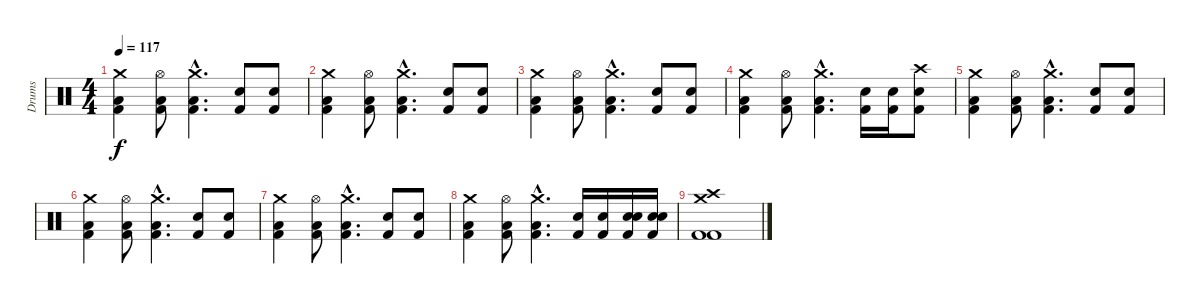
\track ("Drums" "Drums") {instrument percussion}
\staff {score}
\articulation defaults
\ts (4 4)
\tempo 117
\clef neutral
\ks c
("Crash medium (hit)" "Low Tom (hit)" "Kick (hit) 2").4{dy f} ("Hi-Hat (open)" "Low Tom (hit)" "Kick (hit) 2").8 ("Crash medium (hit)"{hac} "Low Floor Tom (hit)"{hac} "Kick (hit) 2"{hac}).4{d} ("Snare (hit) 2" "Kick (hit) 2").8 ("Snare (hit) 2" "Kick (hit) 2").8 |
("Crash medium (hit)" "Low Tom (hit)" "Kick (hit) 2").4 ("Hi-Hat (open)" "Low Tom (hit)" "Kick (hit) 2").8 ("Crash medium (hit)"{hac} "Low Floor Tom (hit)"{hac} "Kick (hit) 2"{hac}).4{d} ("Snare (hit) 2" "Kick (hit) 2").8 ("Snare (hit) 2" "Kick (hit) 2").8 |
("Crash medium (hit)" "Low Tom (hit)" "Kick (hit) 2").4 ("Hi-Hat (open)" "Low Tom (hit)" "Kick (hit) 2").8 ("Crash medium (hit)"{hac} "Low Floor Tom (hit)"{hac} "Kick (hit) 2"{hac}).4{d} ("Snare (hit) 2" "Kick (hit) 2").8 ("Snare (hit) 2" "Kick (hit) 2").8 |
("Crash medium (hit)" "Low Tom (hit)" "Kick (hit) 2").4 ("Hi-Hat (open)" "Low Tom (hit)" "Kick (hit) 2").8 ("Crash medium (hit)"{hac} "Low Floor Tom (hit)"{hac} "Kick (hit) 2"{hac}).4{d} ("Snare (hit) 2" "Kick (hit) 2").16 ("Snare (hit) 2" "Kick (hit) 2").16 ("Crash high (hit)" "Snare (hit) 2" "Kick (hit) 2").8 |
("Crash medium (hit)" "Low Tom (hit)" "Kick (hit) 2").4 ("Hi-Hat (open)" "Low Tom (hit)" "Kick (hit) 2").8 ("Crash medium (hit)"{hac} "Low Floor Tom (hit)"{hac} "Kick (hit) 2"{hac}).4{d} ("Snare (hit) 2" "Kick (hit) 2").8 ("Snare (hit) 2" "Kick (hit) 2").8 |
("Crash medium (hit)" "Low Tom (hit)" "Kick (hit) 2").4 ("Hi-Hat (open)" "Low Tom (hit)" "Kick (hit) 2").8 ("Crash medium (hit)"{hac} "Low Floor Tom (hit)"{hac} "Kick (hit) 2"{hac}).4{d} ("Snare (hit) 2" "Kick (hit) 2").8 ("Snare (hit) 2" "Kick (hit) 2").8 |
("Crash medium (hit)" "Low Tom (hit)" "Kick (hit) 2").4 ("Hi-Hat (open)" "Low Tom (hit)" "Kick (hit) 2").8 ("Crash medium (hit)"{hac} "Low Floor Tom (hit)"{hac} "Kick (hit) 2"{hac}).4{d} ("Snare (hit) 2" "Kick (hit) 2").8 ("Snare (hit) 2" "Kick (hit) 2").8 |
("Crash medium (hit)" "Low Tom (hit)" "Kick (hit) 2").4 ("Hi-Hat (open)" "Low Tom (hit)" "Kick (hit) 2").8 ("Crash medium (hit)"{hac} "Low Floor Tom (hit)"{hac} "Kick (hit) 2"{hac}).4{d} ("Snare (hit) 2" "Kick (hit) 2").16 ("Snare (hit) 2" "Kick (hit) 2").16 ("Snare (hit) 2" "Snare (hit) 2" "Kick (hit) 2").16 ("Snare (hit) 2" "Snare (hit) 2" "Kick (hit) 2").16 |
("Crash medium (hit)" "Crash high (hit)" "Kick (hit) 2" "Kick (hit) 2").1
